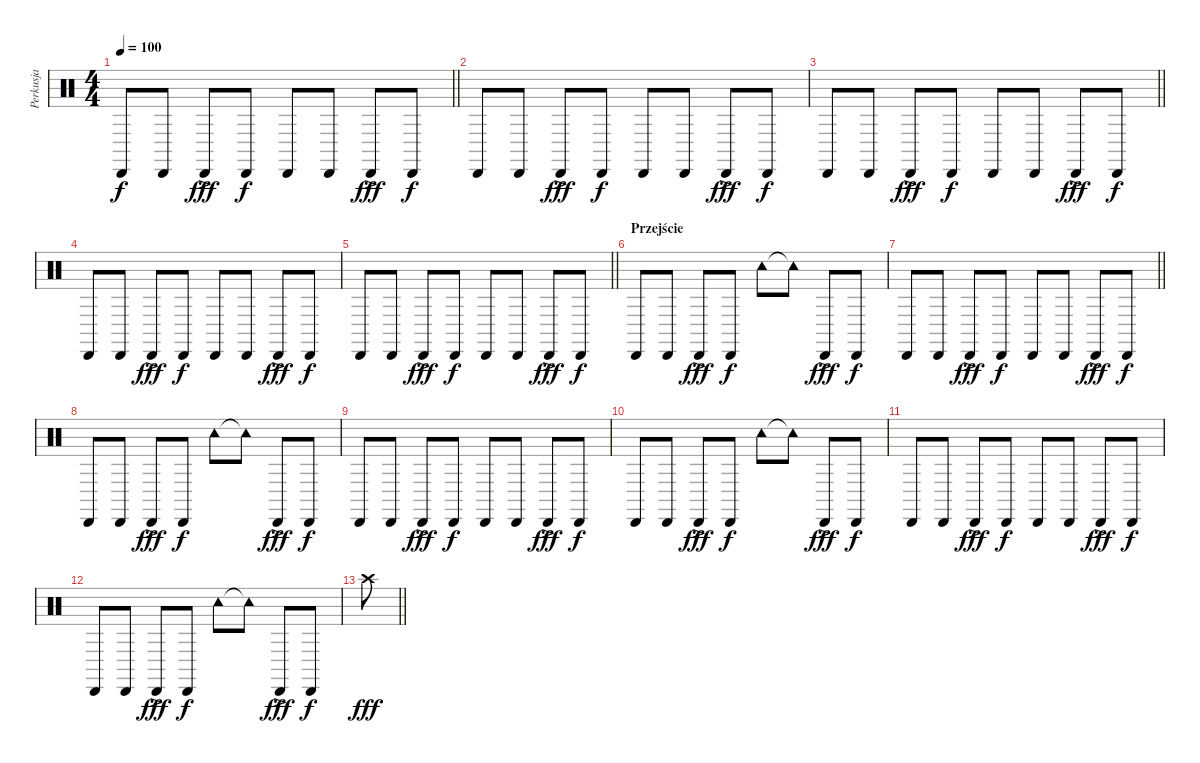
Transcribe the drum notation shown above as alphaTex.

\track ("Perkusja" "Perkusja") {instrument percussion}
\staff {score}
\articulation defaults
\ts (4 4)
\tempo 100
\clef neutral
\barLineRight lightlight
\ks c "Cabasa (hit)".8{dy f} "Cabasa (hit)".8 "Cabasa (hit)"{ac}.8{dy fff} "Cabasa (hit)".8{dy f} "Cabasa (hit)".8 "Cabasa (hit)".8 "Cabasa (hit)"{ac}.8{dy fff} "Cabasa (hit)".8{dy f}
|
"Cabasa (hit)".8 "Cabasa (hit)".8 "Cabasa (hit)"{ac}.8{dy fff} "Cabasa (hit)".8{dy f} "Cabasa (hit)".8 "Cabasa (hit)".8 "Cabasa (hit)"{ac}.8{dy fff} "Cabasa (hit)".8{dy f} |
\barLineRight lightlight "Cabasa (hit)".8 "Cabasa (hit)".8 "Cabasa (hit)"{ac}.8{dy fff} "Cabasa (hit)".8{dy f} "Cabasa (hit)".8 "Cabasa (hit)".8 "Cabasa (hit)"{ac}.8{dy fff} "Cabasa (hit)".8{dy f}
|
"Cabasa (hit)".8 "Cabasa (hit)".8 "Cabasa (hit)"{ac}.8{dy fff} "Cabasa (hit)".8{dy f} "Cabasa (hit)".8 "Cabasa (hit)".8 "Cabasa (hit)"{ac}.8{dy fff} "Cabasa (hit)".8{dy f} |
\barLineRight lightlight "Cabasa (hit)".8 "Cabasa (hit)".8 "Cabasa (hit)"{ac}.8{dy fff} "Cabasa (hit)".8{dy f} "Cabasa (hit)".8 "Cabasa (hit)".8 "Cabasa (hit)"{ac}.8{dy fff} "Cabasa (hit)".8{dy f}
|
\section ("" "Przejście")
"Cabasa (hit)".8 "Cabasa (hit)".8 "Cabasa (hit)"{ac}.8{dy fff} "Cabasa (hit)".8{dy f} "Tambourine (hit)".8 "Tambourine (hit)"{t}.8 "Cabasa (hit)"{ac}.8{dy fff} "Cabasa (hit)".8{dy f} |
\barLineRight lightlight "Cabasa (hit)".8 "Cabasa (hit)".8 "Cabasa (hit)"{ac}.8{dy fff} "Cabasa (hit)".8{dy f} "Cabasa (hit)".8 "Cabasa (hit)".8 "Cabasa (hit)"{ac}.8{dy fff} "Cabasa (hit)".8{dy f}
|
"Cabasa (hit)".8 "Cabasa (hit)".8 "Cabasa (hit)"{ac}.8{dy fff} "Cabasa (hit)".8{dy f} "Tambourine (hit)".8 "Tambourine (hit)"{t}.8 "Cabasa (hit)"{ac}.8{dy fff} "Cabasa (hit)".8{dy f} |
"Cabasa (hit)".8 "Cabasa (hit)".8 "Cabasa (hit)"{ac}.8{dy fff} "Cabasa (hit)".8{dy f} "Cabasa (hit)".8 "Cabasa (hit)".8 "Cabasa (hit)"{ac}.8{dy fff} "Cabasa (hit)".8{dy f} |
"Cabasa (hit)".8 "Cabasa (hit)".8 "Cabasa (hit)"{ac}.8{dy fff} "Cabasa (hit)".8{dy f} "Tambourine (hit)".8 "Tambourine (hit)"{t}.8 "Cabasa (hit)"{ac}.8{dy fff} "Cabasa (hit)".8{dy f} |
"Cabasa (hit)".8 "Cabasa (hit)".8 "Cabasa (hit)"{ac}.8{dy fff} "Cabasa (hit)".8{dy f} "Cabasa (hit)".8 "Cabasa (hit)".8 "Cabasa (hit)"{ac}.8{dy fff} "Cabasa (hit)".8{dy f} |
"Cabasa (hit)".8 "Cabasa (hit)".8 "Cabasa (hit)"{ac}.8{dy fff} "Cabasa (hit)".8{dy f} "Tambourine (hit)".8 "Tambourine (hit)"{t}.8 "Cabasa (hit)"{ac}.8{dy fff} "Cabasa (hit)".8{dy f} |
\barLineRight lightlight "Crash high (hit)".8{dy fff}
